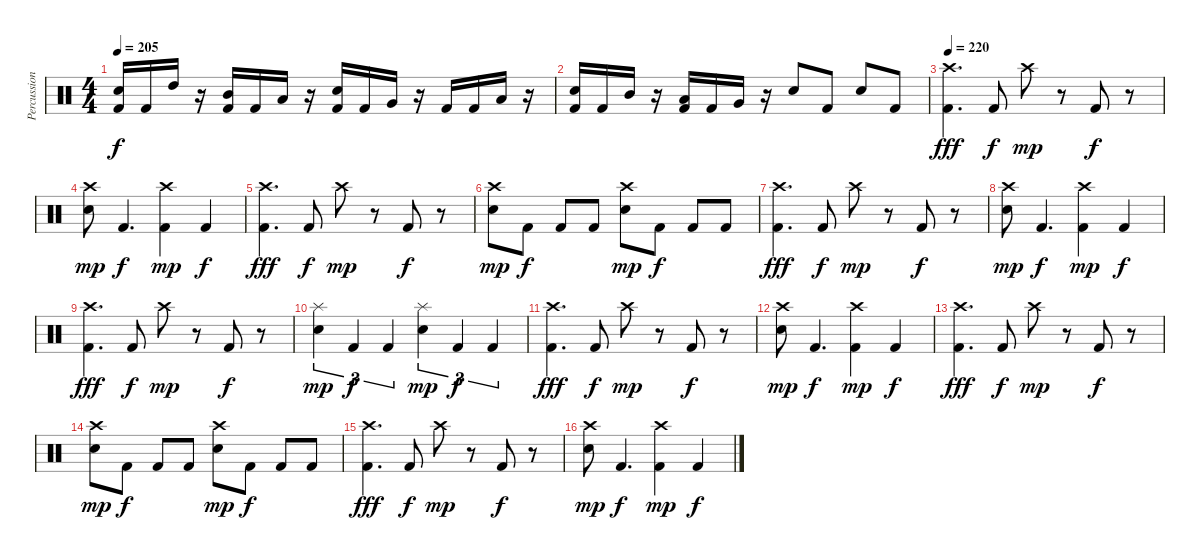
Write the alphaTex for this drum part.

\track ("Percussion" "Percussion") {instrument percussion}
\staff {score}
\articulation defaults
\ts (4 4)
\tempo 205
\clef neutral
\ks c
("Electric Snare (hit)" "Kick (hit) 2").16{dy f} "Kick (hit) 2".16 "High Tom (hit)".16 r.16 ("Mid Tom (hit)" "Kick (hit) 2").16 "Kick (hit) 2".16 "Low Tom (hit)".16 r.16 ("Electric Snare (hit)" "Kick (hit) 2").16 "Kick (hit) 2".16 "Very Low Tom (hit)".16 r.16 "Kick (hit) 2".16 "Kick (hit) 2".16 "Low Floor Tom (hit)".16 r.16 |
("Electric Snare (hit)" "Kick (hit) 2").16 "Kick (hit) 2".16 "Mid Tom (hit)".16 r.16 ("Low Tom (hit)" "Kick (hit) 2").16 "Kick (hit) 2".16 "Very Low Tom (hit)".16 r.16 "Electric Snare (hit)".8 "Kick (hit) 2".8 "Electric Snare (hit)".8 "Kick (hit) 2".8 |
\tempo 220
("Crash high (hit)" "Kick (hit) 2").4{d dy fff} "Kick (hit) 2".8{dy f} "Crash high (hit)".8{dy mp} r.8 "Kick (hit) 2".8{dy f} r.8 |
("Crash high (hit)" "Electric Snare (hit)").8{dy mp} "Kick (hit) 2".4{d dy f} ("Crash high (hit)" "Kick (hit) 2").4{dy mp} "Kick (hit) 2".4{dy f} |
("Crash high (hit)" "Kick (hit) 2").4{d dy fff} "Kick (hit) 2".8{dy f} "Crash high (hit)".8{dy mp} r.8 "Kick (hit) 2".8{dy f} r.8 |
("Crash high (hit)" "Electric Snare (hit)").8{dy mp} "Kick (hit) 2".8{dy f} "Kick (hit) 2".8 "Kick (hit) 2".8 ("Crash high (hit)" "Electric Snare (hit)").8{dy mp} "Kick (hit) 2".8{dy f} "Kick (hit) 2".8 "Kick (hit) 2".8 |
("Crash high (hit)" "Kick (hit) 2").4{d dy fff} "Kick (hit) 2".8{dy f} "Crash high (hit)".8{dy mp} r.8 "Kick (hit) 2".8{dy f} r.8 |
("Crash high (hit)" "Electric Snare (hit)").8{dy mp} "Kick (hit) 2".4{d dy f} ("Crash high (hit)" "Kick (hit) 2").4{dy mp} "Kick (hit) 2".4{dy f} |
("Crash high (hit)" "Kick (hit) 2").4{d dy fff} "Kick (hit) 2".8{dy f} "Crash high (hit)".8{dy mp} r.8 "Kick (hit) 2".8{dy f} r.8 |
("Splash (hit)" "Electric Snare (hit)").4{tu (3 2) dy mp} "Kick (hit) 2".4{tu (3 2) dy f} "Kick (hit) 2".4{tu (3 2)} ("Splash (hit)" "Electric Snare (hit)").4{tu (3 2) dy mp} "Kick (hit) 2".4{tu (3 2) dy f} "Kick (hit) 2".4{tu (3 2)} |
("Crash high (hit)" "Kick (hit) 2").4{d dy fff} "Kick (hit) 2".8{dy f} "Crash high (hit)".8{dy mp} r.8 "Kick (hit) 2".8{dy f} r.8 |
("Crash high (hit)" "Electric Snare (hit)").8{dy mp} "Kick (hit) 2".4{d dy f} ("Crash high (hit)" "Kick (hit) 2").4{dy mp} "Kick (hit) 2".4{dy f} |
("Crash high (hit)" "Kick (hit) 2").4{d dy fff} "Kick (hit) 2".8{dy f} "Crash high (hit)".8{dy mp} r.8 "Kick (hit) 2".8{dy f} r.8 |
("Crash high (hit)" "Electric Snare (hit)").8{dy mp} "Kick (hit) 2".8{dy f} "Kick (hit) 2".8 "Kick (hit) 2".8 ("Crash high (hit)" "Electric Snare (hit)").8{dy mp} "Kick (hit) 2".8{dy f} "Kick (hit) 2".8 "Kick (hit) 2".8 |
("Crash high (hit)" "Kick (hit) 2").4{d dy fff} "Kick (hit) 2".8{dy f} "Crash high (hit)".8{dy mp} r.8 "Kick (hit) 2".8{dy f} r.8 |
("Crash high (hit)" "Electric Snare (hit)").8{dy mp} "Kick (hit) 2".4{d dy f} ("Crash high (hit)" "Kick (hit) 2").4{dy mp} "Kick (hit) 2".4{dy f}
